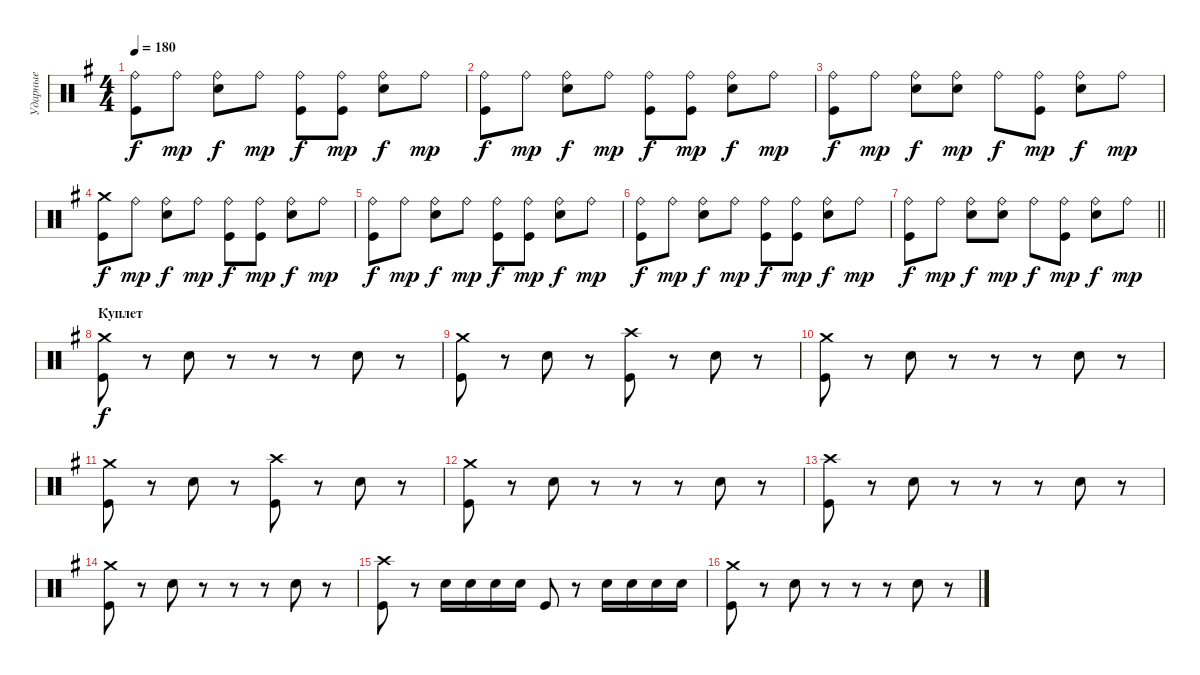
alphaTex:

\track ("Ударные" "Ударные") {instrument percussion}
\staff {score}
\articulation defaults
\ts (4 4)
\tempo 180
\clef neutral
\ks g
("Ride (bell)" "Kick (hit)").8{dy f} "Ride (bell)".8{dy mp} ("Ride (bell)" "Electric Snare (hit)").8{dy f} "Ride (bell)".8{dy mp} ("Ride (bell)" "Kick (hit)").8{dy f} ("Ride (bell)" "Kick (hit)").8{dy mp} ("Ride (bell)" "Electric Snare (hit)").8{dy f} "Ride (bell)".8{dy mp} |
("Ride (bell)" "Kick (hit)").8{dy f} "Ride (bell)".8{dy mp} ("Ride (bell)" "Electric Snare (hit)").8{dy f} "Ride (bell)".8{dy mp} ("Ride (bell)" "Kick (hit)").8{dy f} ("Ride (bell)" "Kick (hit)").8{dy mp} ("Ride (bell)" "Electric Snare (hit)").8{dy f} "Ride (bell)".8{dy mp} |
("Ride (bell)" "Kick (hit)").8{dy f} "Ride (bell)".8{dy mp} ("Ride (bell)" "Electric Snare (hit)").8{dy f} ("Ride (bell)" "Electric Snare (hit)").8{dy mp} "Ride (bell)".8{dy f} ("Ride (bell)" "Kick (hit)").8{dy mp} ("Ride (bell)" "Electric Snare (hit)").8{dy f} "Ride (bell)".8{dy mp} |
("Crash medium (hit)" "Kick (hit)").8{dy f} "Ride (bell)".8{dy mp} ("Ride (bell)" "Electric Snare (hit)").8{dy f} "Ride (bell)".8{dy mp} ("Ride (bell)" "Kick (hit)").8{dy f} ("Ride (bell)" "Kick (hit)").8{dy mp} ("Ride (bell)" "Electric Snare (hit)").8{dy f} "Ride (bell)".8{dy mp} |
("Ride (bell)" "Kick (hit)").8{dy f} "Ride (bell)".8{dy mp} ("Ride (bell)" "Electric Snare (hit)").8{dy f} "Ride (bell)".8{dy mp} ("Ride (bell)" "Kick (hit)").8{dy f} ("Ride (bell)" "Kick (hit)").8{dy mp} ("Ride (bell)" "Electric Snare (hit)").8{dy f} "Ride (bell)".8{dy mp} |
("Ride (bell)" "Kick (hit)").8{dy f} "Ride (bell)".8{dy mp} ("Ride (bell)" "Electric Snare (hit)").8{dy f} "Ride (bell)".8{dy mp} ("Ride (bell)" "Kick (hit)").8{dy f} ("Ride (bell)" "Kick (hit)").8{dy mp} ("Ride (bell)" "Electric Snare (hit)").8{dy f} "Ride (bell)".8{dy mp} |
\barLineRight lightlight
("Ride (bell)" "Kick (hit)").8{dy f} "Ride (bell)".8{dy mp} ("Ride (bell)" "Electric Snare (hit)").8{dy f} ("Ride (bell)" "Electric Snare (hit)").8{dy mp} "Ride (bell)".8{dy f} ("Ride (bell)" "Kick (hit)").8{dy mp} ("Ride (bell)" "Electric Snare (hit)").8{dy f} "Ride (bell)".8{dy mp} |
\section ("" "Куплет")
("Crash medium (hit)" "Kick (hit)").8{dy f} r.8 "Electric Snare (hit)".8 r.8 r.8 r.8 "Electric Snare (hit)".8 r.8 |
("Crash medium (hit)" "Kick (hit)").8 r.8 "Electric Snare (hit)".8 r.8 ("Crash high (hit)" "Kick (hit)").8 r.8 "Electric Snare (hit)".8 r.8 |
("Crash medium (hit)" "Kick (hit)").8 r.8 "Electric Snare (hit)".8 r.8 r.8 r.8 "Electric Snare (hit)".8 r.8 |
("Crash medium (hit)" "Kick (hit)").8 r.8 "Electric Snare (hit)".8 r.8 ("Crash high (hit)" "Kick (hit)").8 r.8 "Electric Snare (hit)".8 r.8 |
("Crash medium (hit)" "Kick (hit)").8 r.8 "Electric Snare (hit)".8 r.8 r.8 r.8 "Electric Snare (hit)".8 r.8 |
("Crash high (hit)" "Kick (hit)").8 r.8 "Electric Snare (hit)".8 r.8 r.8 r.8 "Electric Snare (hit)".8 r.8 |
("Crash medium (hit)" "Kick (hit)").8 r.8 "Electric Snare (hit)".8 r.8 r.8 r.8 "Electric Snare (hit)".8 r.8 |
("Crash high (hit)" "Kick (hit)").8 r.8 "Electric Snare (hit)".16 "Electric Snare (hit)".16 "Electric Snare (hit)".16 "Electric Snare (hit)".16 "Kick (hit)".8 r.8 "Electric Snare (hit)".16 "Electric Snare (hit)".16 "Electric Snare (hit)".16 "Electric Snare (hit)".16 |
("Crash medium (hit)" "Kick (hit)").8 r.8 "Electric Snare (hit)".8 r.8 r.8 r.8 "Electric Snare (hit)".8 r.8
